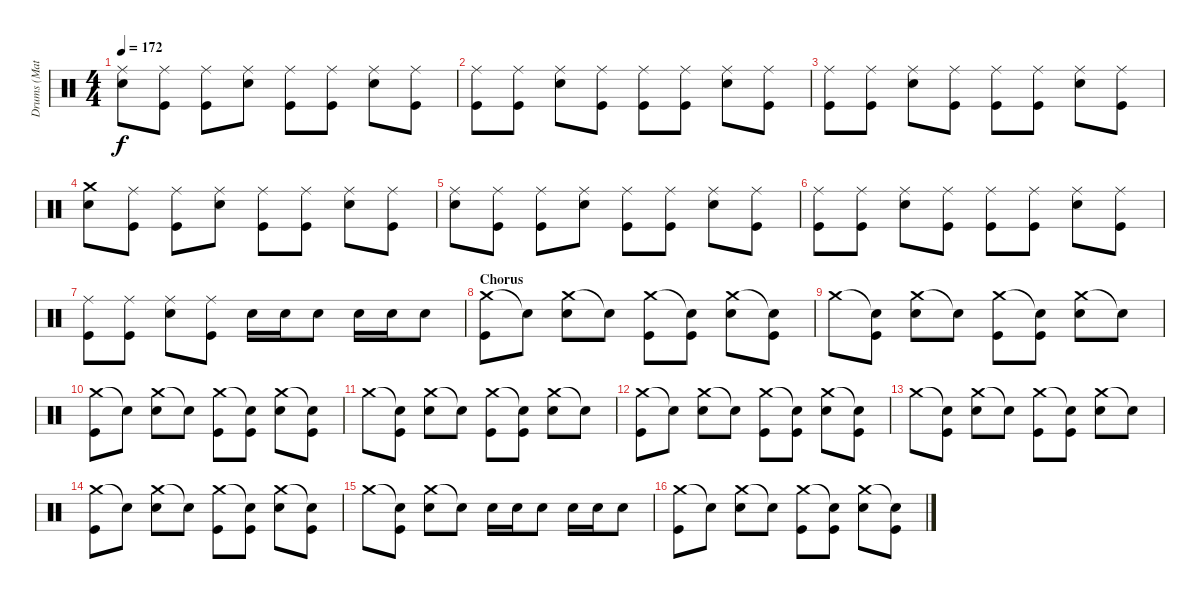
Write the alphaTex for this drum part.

\track ("Drums (Matt)" "Drums (Mat") {instrument percussion}
\staff {score}
\articulation defaults
\ts (4 4)
\tempo 172
\clef neutral
\ks c
("Ride (middle)" "Electric Snare (hit)").8{dy f} ("Ride (middle)" "Kick (hit)").8 ("Ride (middle)" "Kick (hit)").8 ("Ride (middle)" "Electric Snare (hit)").8 ("Ride (middle)" "Kick (hit)").8 ("Ride (middle)" "Kick (hit)").8 ("Ride (middle)" "Electric Snare (hit)").8 ("Ride (middle)" "Kick (hit)").8 |
("Ride (middle)" "Kick (hit)").8 ("Ride (middle)" "Kick (hit)").8 ("Ride (middle)" "Electric Snare (hit)").8 ("Ride (middle)" "Kick (hit)").8 ("Ride (middle)" "Kick (hit)").8 ("Ride (middle)" "Kick (hit)").8 ("Ride (middle)" "Electric Snare (hit)").8 ("Ride (middle)" "Kick (hit)").8 |
("Ride (middle)" "Kick (hit)").8 ("Ride (middle)" "Kick (hit)").8 ("Ride (middle)" "Electric Snare (hit)").8 ("Ride (middle)" "Kick (hit)").8 ("Ride (middle)" "Kick (hit)").8 ("Ride (middle)" "Kick (hit)").8 ("Ride (middle)" "Electric Snare (hit)").8 ("Ride (middle)" "Kick (hit)").8 |
("Crash medium (hit)" "Electric Snare (hit)").8 ("Ride (middle)" "Kick (hit)").8 ("Ride (middle)" "Kick (hit)").8 ("Ride (middle)" "Electric Snare (hit)").8 ("Ride (middle)" "Kick (hit)").8 ("Ride (middle)" "Kick (hit)").8 ("Ride (middle)" "Electric Snare (hit)").8 ("Ride (middle)" "Kick (hit)").8 |
("Ride (middle)" "Electric Snare (hit)").8 ("Ride (middle)" "Kick (hit)").8 ("Ride (middle)" "Kick (hit)").8 ("Ride (middle)" "Electric Snare (hit)").8 ("Ride (middle)" "Kick (hit)").8 ("Ride (middle)" "Kick (hit)").8 ("Ride (middle)" "Electric Snare (hit)").8 ("Ride (middle)" "Kick (hit)").8 |
("Ride (middle)" "Kick (hit)").8 ("Ride (middle)" "Kick (hit)").8 ("Ride (middle)" "Electric Snare (hit)").8 ("Ride (middle)" "Kick (hit)").8 ("Ride (middle)" "Kick (hit)").8 ("Ride (middle)" "Kick (hit)").8 ("Ride (middle)" "Electric Snare (hit)").8 ("Ride (middle)" "Kick (hit)").8 |
("Ride (middle)" "Kick (hit)").8 ("Ride (middle)" "Kick (hit)").8 ("Ride (middle)" "Electric Snare (hit)").8 ("Ride (middle)" "Kick (hit)").8 "Electric Snare (hit)".16 "Electric Snare (hit)".16 "Electric Snare (hit)".8 "Electric Snare (hit)".16 "Electric Snare (hit)".16 "Electric Snare (hit)".8 |
\section ("" "Chorus")
("Crash medium (hit)" "Kick (hit)").8 "Snare (hit)"{t}.8 ("Crash medium (hit)" "Electric Snare (hit)").8 "Snare (hit)"{t}.8 ("Crash medium (hit)" "Kick (hit)").8 ("Snare (hit)"{t} "Kick (hit)").8 ("Crash medium (hit)" "Electric Snare (hit)").8 ("Snare (hit)"{t} "Kick (hit)").8 |
"Crash medium (hit)".8 ("Snare (hit)"{t} "Kick (hit)").8 ("Crash medium (hit)" "Electric Snare (hit)").8 "Snare (hit)"{t}.8 ("Crash medium (hit)" "Kick (hit)").8 ("Snare (hit)"{t} "Kick (hit)").8 ("Crash medium (hit)" "Electric Snare (hit)").8 "Snare (hit)"{t}.8 |
("Crash medium (hit)" "Kick (hit)").8 "Snare (hit)"{t}.8 ("Crash medium (hit)" "Electric Snare (hit)").8 "Snare (hit)"{t}.8 ("Crash medium (hit)" "Kick (hit)").8 ("Snare (hit)"{t} "Kick (hit)").8 ("Crash medium (hit)" "Electric Snare (hit)").8 ("Snare (hit)"{t} "Kick (hit)").8 |
"Crash medium (hit)".8 ("Snare (hit)"{t} "Kick (hit)").8 ("Crash medium (hit)" "Electric Snare (hit)").8 "Snare (hit)"{t}.8 ("Crash medium (hit)" "Kick (hit)").8 ("Snare (hit)"{t} "Kick (hit)").8 ("Crash medium (hit)" "Electric Snare (hit)").8 "Snare (hit)"{t}.8 |
("Crash medium (hit)" "Kick (hit)").8 "Snare (hit)"{t}.8 ("Crash medium (hit)" "Electric Snare (hit)").8 "Snare (hit)"{t}.8 ("Crash medium (hit)" "Kick (hit)").8 ("Snare (hit)"{t} "Kick (hit)").8 ("Crash medium (hit)" "Electric Snare (hit)").8 ("Snare (hit)"{t} "Kick (hit)").8 |
"Crash medium (hit)".8 ("Snare (hit)"{t} "Kick (hit)").8 ("Crash medium (hit)" "Electric Snare (hit)").8 "Snare (hit)"{t}.8 ("Crash medium (hit)" "Kick (hit)").8 ("Snare (hit)"{t} "Kick (hit)").8 ("Crash medium (hit)" "Electric Snare (hit)").8 "Snare (hit)"{t}.8 |
("Crash medium (hit)" "Kick (hit)").8 "Snare (hit)"{t}.8 ("Crash medium (hit)" "Electric Snare (hit)").8 "Snare (hit)"{t}.8 ("Crash medium (hit)" "Kick (hit)").8 ("Snare (hit)"{t} "Kick (hit)").8 ("Crash medium (hit)" "Electric Snare (hit)").8 ("Snare (hit)"{t} "Kick (hit)").8 |
"Crash medium (hit)".8 ("Snare (hit)"{t} "Kick (hit)").8 ("Crash medium (hit)" "Electric Snare (hit)").8 "Snare (hit)"{t}.8 "Electric Snare (hit)".16 "Electric Snare (hit)".16 "Electric Snare (hit)".8 "Electric Snare (hit)".16 "Electric Snare (hit)".16 "Electric Snare (hit)".8 |
("Crash medium (hit)" "Kick (hit)").8 "Snare (hit)"{t}.8 ("Crash medium (hit)" "Electric Snare (hit)").8 "Snare (hit)"{t}.8 ("Crash medium (hit)" "Kick (hit)").8 ("Snare (hit)"{t} "Kick (hit)").8 ("Crash medium (hit)" "Electric Snare (hit)").8 ("Snare (hit)"{t} "Kick (hit)").8
